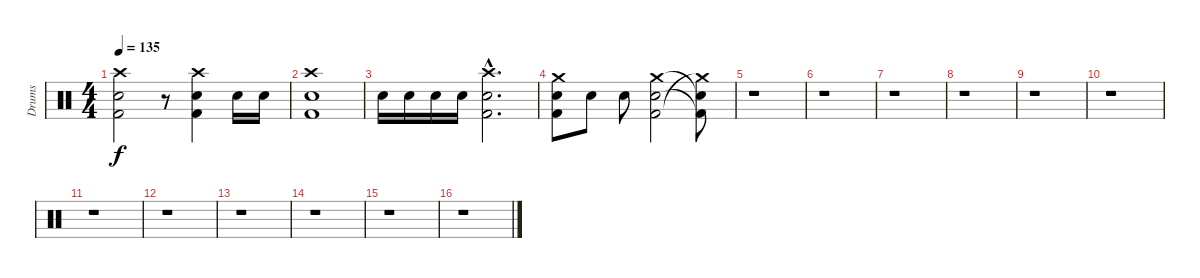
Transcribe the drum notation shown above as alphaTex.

\track ("Drums" "Drums") {instrument percussion}
\staff {score}
\articulation defaults
\ts (4 4)
\tempo 135
\clef neutral
\ks c
("Crash high (hit)" "Electric Snare (hit)" "Kick (hit) 2").2{dy f} r.8 ("Kick (hit) 2" "Electric Snare (hit)" "Crash high (hit)").4 "Electric Snare (hit)".16 "Electric Snare (hit)".16 |
("Electric Snare (hit)" "Kick (hit) 2" "Crash high (hit)").1 |
"Electric Snare (hit)".16 "Electric Snare (hit)".16 "Electric Snare (hit)".16 "Electric Snare (hit)".16 ("Kick (hit) 2"{hac} "Electric Snare (hit)"{hac} "Crash high (hit)"{hac}).2{d} |
("Crash medium (hit)" "Electric Snare (hit)" "Kick (hit) 2").8 "Electric Snare (hit)".8 "Electric Snare (hit)".8 ("Electric Snare (hit)" "Crash medium (hit)" "Kick (hit) 2").2 ("Kick (hit) 2"{t} "Electric Snare (hit)"{t} "Crash medium (hit)"{t}).8 |
r.1 |
r.1 |
r.1 |
r.1 |
r.1 |
r.1 |
r.1 |
r.1 |
r.1 |
r.1 |
r.1 |
r.1
